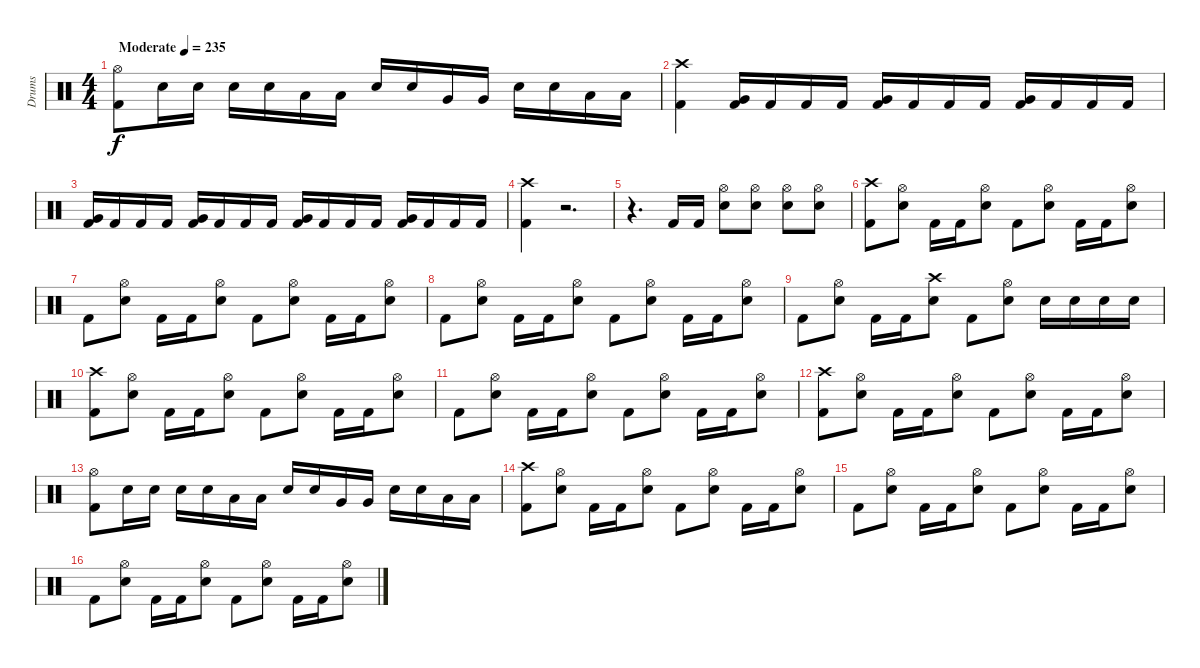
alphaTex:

\track ("Drums" "Drums") {instrument percussion}
\staff {score}
\articulation defaults
\ts (4 4)
\tempo (235 "Moderate")
\clef neutral
\ks c
("Hi-Hat (open)" "Kick (hit) 2").8{dy f} "Electric Snare (hit)".16 "Electric Snare (hit)".16 "Electric Snare (hit)".16 "Electric Snare (hit)".16 "Low Tom (hit)".16 "Low Tom (hit)".16 "Electric Snare (hit)".16 "Electric Snare (hit)".16 "Very Low Tom (hit)".16 "Very Low Tom (hit)".16 "Electric Snare (hit)".16 "Electric Snare (hit)".16 "Low Floor Tom (hit)".16 "Low Floor Tom (hit)".16 |
("Crash high (hit)" "Kick (hit) 2").4 ("Very Low Tom (hit)" "Kick (hit) 2").16 "Kick (hit) 2".16 "Kick (hit) 2".16 "Kick (hit) 2".16 ("Very Low Tom (hit)" "Kick (hit) 2").16 "Kick (hit) 2".16 "Kick (hit) 2".16 "Kick (hit) 2".16 ("Very Low Tom (hit)" "Kick (hit) 2").16 "Kick (hit) 2".16 "Kick (hit) 2".16 "Kick (hit) 2".16 |
("Very Low Tom (hit)" "Kick (hit) 2").16 "Kick (hit) 2".16 "Kick (hit) 2".16 "Kick (hit) 2".16 ("Very Low Tom (hit)" "Kick (hit) 2").16 "Kick (hit) 2".16 "Kick (hit) 2".16 "Kick (hit) 2".16 ("Very Low Tom (hit)" "Kick (hit) 2").16 "Kick (hit) 2".16 "Kick (hit) 2".16 "Kick (hit) 2".16 ("Very Low Tom (hit)" "Kick (hit) 2").16 "Kick (hit) 2".16 "Kick (hit) 2".16 "Kick (hit) 2".16 |
("Crash high (hit)" "Kick (hit) 2").4 r.2{d volume 0} |
r.4{d} "Kick (hit) 2".16{volume 14} "Kick (hit) 2".16 ("Hi-Hat (open)" "Electric Snare (hit)").8 ("Hi-Hat (open)" "Electric Snare (hit)").8 ("Hi-Hat (open)" "Electric Snare (hit)").8 ("Hi-Hat (open)" "Electric Snare (hit)").8 |
("Crash high (hit)" "Kick (hit) 2").8 ("Hi-Hat (open)" "Electric Snare (hit)").8 "Kick (hit) 2".16 "Kick (hit) 2".16 ("Hi-Hat (open)" "Electric Snare (hit)").8 "Kick (hit) 2".8 ("Hi-Hat (open)" "Electric Snare (hit)").8 "Kick (hit) 2".16 "Kick (hit) 2".16 ("Hi-Hat (open)" "Electric Snare (hit)").8 |
"Kick (hit) 2".8 ("Hi-Hat (open)" "Electric Snare (hit)").8 "Kick (hit) 2".16 "Kick (hit) 2".16 ("Hi-Hat (open)" "Electric Snare (hit)").8 "Kick (hit) 2".8 ("Hi-Hat (open)" "Electric Snare (hit)").8 "Kick (hit) 2".16 "Kick (hit) 2".16 ("Hi-Hat (open)" "Electric Snare (hit)").8 |
"Kick (hit) 2".8 ("Hi-Hat (open)" "Electric Snare (hit)").8 "Kick (hit) 2".16 "Kick (hit) 2".16 ("Hi-Hat (open)" "Electric Snare (hit)").8 "Kick (hit) 2".8 ("Hi-Hat (open)" "Electric Snare (hit)").8 "Kick (hit) 2".16 "Kick (hit) 2".16 ("Hi-Hat (open)" "Electric Snare (hit)").8 |
"Kick (hit) 2".8 ("Hi-Hat (open)" "Electric Snare (hit)").8 "Kick (hit) 2".16 "Kick (hit) 2".16 ("Crash high (hit)" "Electric Snare (hit)").8 "Kick (hit) 2".8 ("Hi-Hat (open)" "Electric Snare (hit)").8 "Electric Snare (hit)".16 "Electric Snare (hit)".16 "Electric Snare (hit)".16 "Electric Snare (hit)".16 |
("Crash high (hit)" "Kick (hit) 2").8 ("Hi-Hat (open)" "Electric Snare (hit)").8 "Kick (hit) 2".16 "Kick (hit) 2".16 ("Hi-Hat (open)" "Electric Snare (hit)").8 "Kick (hit) 2".8 ("Hi-Hat (open)" "Electric Snare (hit)").8 "Kick (hit) 2".16 "Kick (hit) 2".16 ("Hi-Hat (open)" "Electric Snare (hit)").8 |
"Kick (hit) 2".8 ("Hi-Hat (open)" "Electric Snare (hit)").8 "Kick (hit) 2".16 "Kick (hit) 2".16 ("Hi-Hat (open)" "Electric Snare (hit)").8 "Kick (hit) 2".8 ("Hi-Hat (open)" "Electric Snare (hit)").8 "Kick (hit) 2".16 "Kick (hit) 2".16 ("Hi-Hat (open)" "Electric Snare (hit)").8 |
("Crash high (hit)" "Kick (hit) 2").8 ("Hi-Hat (open)" "Electric Snare (hit)").8 "Kick (hit) 2".16 "Kick (hit) 2".16 ("Hi-Hat (open)" "Electric Snare (hit)").8 "Kick (hit) 2".8 ("Hi-Hat (open)" "Electric Snare (hit)").8 "Kick (hit) 2".16 "Kick (hit) 2".16 ("Hi-Hat (open)" "Electric Snare (hit)").8 |
("Hi-Hat (open)" "Kick (hit) 2").8 "Electric Snare (hit)".16 "Electric Snare (hit)".16 "Electric Snare (hit)".16 "Electric Snare (hit)".16 "Low Tom (hit)".16 "Low Tom (hit)".16 "Electric Snare (hit)".16 "Electric Snare (hit)".16 "Very Low Tom (hit)".16 "Very Low Tom (hit)".16 "Electric Snare (hit)".16 "Electric Snare (hit)".16 "Low Floor Tom (hit)".16 "Low Floor Tom (hit)".16 |
("Crash high (hit)" "Kick (hit) 2").8 ("Hi-Hat (open)" "Electric Snare (hit)").8 "Kick (hit) 2".16 "Kick (hit) 2".16 ("Hi-Hat (open)" "Electric Snare (hit)").8 "Kick (hit) 2".8 ("Hi-Hat (open)" "Electric Snare (hit)").8 "Kick (hit) 2".16 "Kick (hit) 2".16 ("Hi-Hat (open)" "Electric Snare (hit)").8 |
"Kick (hit) 2".8 ("Hi-Hat (open)" "Electric Snare (hit)").8 "Kick (hit) 2".16 "Kick (hit) 2".16 ("Hi-Hat (open)" "Electric Snare (hit)").8 "Kick (hit) 2".8 ("Hi-Hat (open)" "Electric Snare (hit)").8 "Kick (hit) 2".16 "Kick (hit) 2".16 ("Hi-Hat (open)" "Electric Snare (hit)").8 |
"Kick (hit) 2".8 ("Hi-Hat (open)" "Electric Snare (hit)").8 "Kick (hit) 2".16 "Kick (hit) 2".16 ("Hi-Hat (open)" "Electric Snare (hit)").8 "Kick (hit) 2".8 ("Hi-Hat (open)" "Electric Snare (hit)").8 "Kick (hit) 2".16 "Kick (hit) 2".16 ("Hi-Hat (open)" "Electric Snare (hit)").8
